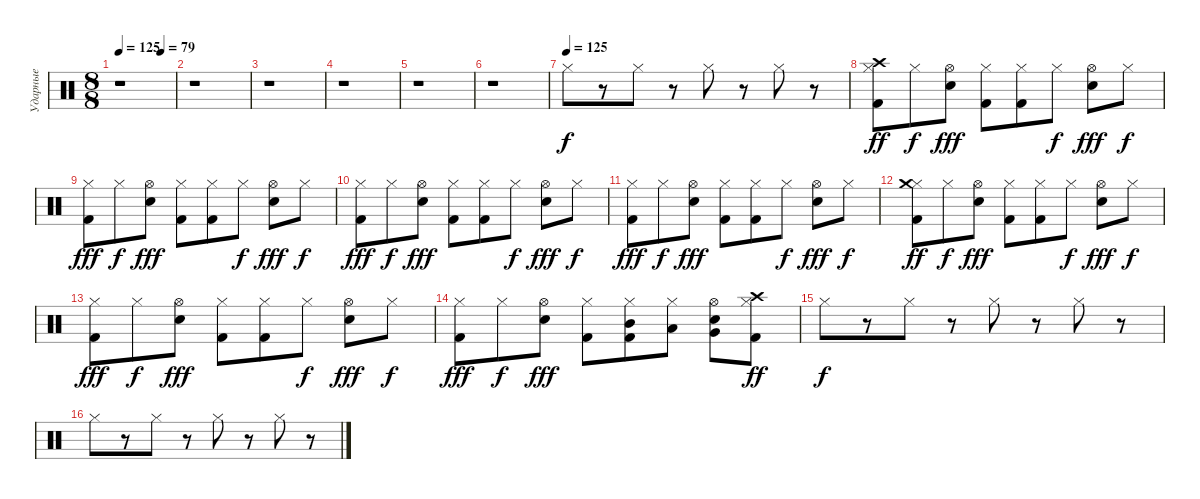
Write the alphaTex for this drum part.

\track ("Ударные" "Ударные") {instrument percussion}
\staff {score}
\articulation defaults
\ts (8 8)
\tempo 125
\tempo (79 0.75)
\tempo 125
\clef neutral
\ks c
r.1{dy f} |
r.1 |
r.1 |
r.1 |
r.1 |
r.1 |
\tempo (125)
"Hi-Hat (closed)".8 r.8 "Hi-Hat (closed)".8 r.8 "Hi-Hat (closed)".8 r.8 "Hi-Hat (closed)".8 r.8 |
("Kick (hit) 2" "Hi-Hat (closed)" "Crash high (hit)").8{dy ff} "Hi-Hat (closed)".8{dy f} ("Hi-Hat (open)" "Snare (hit) 2").8{dy fff} ("Kick (hit) 2" "Hi-Hat (closed)").8 ("Kick (hit) 2" "Hi-Hat (closed)").8 "Hi-Hat (closed)".8{dy f} ("Hi-Hat (open)" "Snare (hit) 2").8{dy fff} "Hi-Hat (closed)".8{dy f} |
("Kick (hit) 2" "Hi-Hat (closed)").8{dy fff} "Hi-Hat (closed)".8{dy f} ("Hi-Hat (open)" "Snare (hit) 2").8{dy fff} ("Kick (hit) 2" "Hi-Hat (closed)").8 ("Kick (hit) 2" "Hi-Hat (closed)").8 "Hi-Hat (closed)".8{dy f} ("Hi-Hat (open)" "Snare (hit) 2").8{dy fff} "Hi-Hat (closed)".8{dy f} |
("Kick (hit) 2" "Hi-Hat (closed)").8{dy fff} "Hi-Hat (closed)".8{dy f} ("Hi-Hat (open)" "Snare (hit) 2").8{dy fff} ("Kick (hit) 2" "Hi-Hat (closed)").8 ("Kick (hit) 2" "Hi-Hat (closed)").8 "Hi-Hat (closed)".8{dy f} ("Hi-Hat (open)" "Snare (hit) 2").8{dy fff} "Hi-Hat (closed)".8{dy f} |
("Kick (hit) 2" "Hi-Hat (closed)").8{dy fff} "Hi-Hat (closed)".8{dy f} ("Hi-Hat (open)" "Snare (hit) 2").8{dy fff} ("Kick (hit) 2" "Hi-Hat (closed)").8 ("Kick (hit) 2" "Hi-Hat (closed)").8 "Hi-Hat (closed)".8{dy f} ("Hi-Hat (open)" "Snare (hit) 2").8{dy fff} "Hi-Hat (closed)".8{dy f} |
("Kick (hit) 2" "Hi-Hat (closed)" "Crash medium (hit)").8{dy ff} "Hi-Hat (closed)".8{dy f} ("Hi-Hat (open)" "Snare (hit) 2").8{dy fff} ("Kick (hit) 2" "Hi-Hat (closed)").8 ("Kick (hit) 2" "Hi-Hat (closed)").8 "Hi-Hat (closed)".8{dy f} ("Hi-Hat (open)" "Snare (hit) 2").8{dy fff} "Hi-Hat (closed)".8{dy f} |
("Kick (hit) 2" "Hi-Hat (closed)").8{dy fff} "Hi-Hat (closed)".8{dy f} ("Hi-Hat (open)" "Snare (hit) 2").8{dy fff} ("Kick (hit) 2" "Hi-Hat (closed)").8 ("Kick (hit) 2" "Hi-Hat (closed)").8 "Hi-Hat (closed)".8{dy f} ("Hi-Hat (open)" "Snare (hit) 2").8{dy fff} "Hi-Hat (closed)".8{dy f} |
("Kick (hit) 2" "Hi-Hat (closed)").8{dy fff} "Hi-Hat (closed)".8{dy f} ("Hi-Hat (open)" "Snare (hit) 2").8{dy fff} ("Kick (hit) 2" "Hi-Hat (closed)").8 ("Kick (hit) 2" "Hi-Hat (closed)" "Mid Tom (hit)").8 ("Hi-Hat (closed)" "Low Tom (hit)").8 ("Hi-Hat (open)" "Snare (hit) 2" "Very Low Tom (hit)").8 ("Kick (hit) 2" "Hi-Hat (closed)" "Crash high (hit)").8{dy ff} |
"Hi-Hat (closed)".8{dy f} r.8 "Hi-Hat (closed)".8 r.8 "Hi-Hat (closed)".8 r.8 "Hi-Hat (closed)".8 r.8 |
"Hi-Hat (closed)".8 r.8 "Hi-Hat (closed)".8 r.8 "Hi-Hat (closed)".8 r.8 "Hi-Hat (closed)".8 r.8
